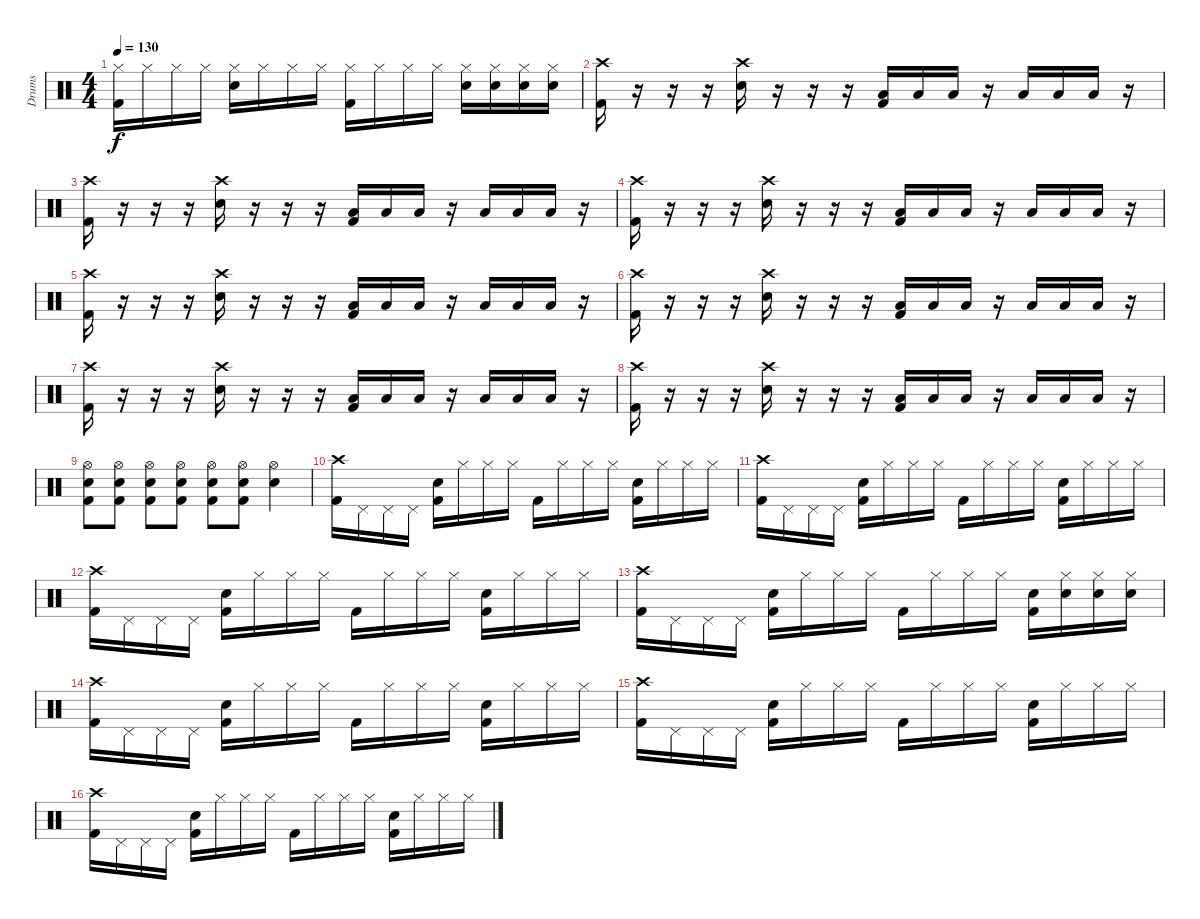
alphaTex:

\track ("Drums" "Drums") {instrument percussion}
\staff {score}
\articulation defaults
\ts (4 4)
\tempo 130
\clef neutral
\ks c
("Hi-Hat (closed)" "Kick (hit) 2").16{dy f} "Hi-Hat (closed)".16 "Hi-Hat (closed)".16 "Hi-Hat (closed)".16 ("Hi-Hat (closed)" "Electric Snare (hit)").16 "Hi-Hat (closed)".16 "Hi-Hat (closed)".16 "Hi-Hat (closed)".16 ("Hi-Hat (closed)" "Kick (hit) 2").16 "Hi-Hat (closed)".16 "Hi-Hat (closed)".16 "Hi-Hat (closed)".16 ("Hi-Hat (closed)" "Electric Snare (hit)").16 ("Hi-Hat (closed)" "Electric Snare (hit)").16 ("Hi-Hat (closed)" "Electric Snare (hit)").16 ("Hi-Hat (closed)" "Electric Snare (hit)").16 |
("Crash high (hit)" "Kick (hit) 2").16 r.16 r.16 r.16 ("Crash high (hit)" "Electric Snare (hit)").16 r.16 r.16 r.16 ("Low Tom (hit)" "Kick (hit) 2").16 "Low Tom (hit)".16 "Low Tom (hit)".16 r.16 "Low Tom (hit)".16 "Low Tom (hit)".16 "Low Tom (hit)".16 r.16 |
("Crash high (hit)" "Kick (hit) 2").16 r.16 r.16 r.16 ("Crash high (hit)" "Electric Snare (hit)").16 r.16 r.16 r.16 ("Low Tom (hit)" "Kick (hit) 2").16 "Low Tom (hit)".16 "Low Tom (hit)".16 r.16 "Low Tom (hit)".16 "Low Tom (hit)".16 "Low Tom (hit)".16 r.16 |
("Crash high (hit)" "Kick (hit) 2").16 r.16 r.16 r.16 ("Crash high (hit)" "Electric Snare (hit)").16 r.16 r.16 r.16 ("Low Tom (hit)" "Kick (hit) 2").16 "Low Tom (hit)".16 "Low Tom (hit)".16 r.16 "Low Tom (hit)".16 "Low Tom (hit)".16 "Low Tom (hit)".16 r.16 |
("Crash high (hit)" "Kick (hit) 2").16 r.16 r.16 r.16 ("Crash high (hit)" "Electric Snare (hit)").16 r.16 r.16 r.16 ("Low Tom (hit)" "Kick (hit) 2").16 "Low Tom (hit)".16 "Low Tom (hit)".16 r.16 "Low Tom (hit)".16 "Low Tom (hit)".16 "Low Tom (hit)".16 r.16 |
("Crash high (hit)" "Kick (hit) 2").16 r.16 r.16 r.16 ("Crash high (hit)" "Electric Snare (hit)").16 r.16 r.16 r.16 ("Low Tom (hit)" "Kick (hit) 2").16 "Low Tom (hit)".16 "Low Tom (hit)".16 r.16 "Low Tom (hit)".16 "Low Tom (hit)".16 "Low Tom (hit)".16 r.16 |
("Crash high (hit)" "Kick (hit) 2").16 r.16 r.16 r.16 ("Crash high (hit)" "Electric Snare (hit)").16 r.16 r.16 r.16 ("Low Tom (hit)" "Kick (hit) 2").16 "Low Tom (hit)".16 "Low Tom (hit)".16 r.16 "Low Tom (hit)".16 "Low Tom (hit)".16 "Low Tom (hit)".16 r.16 |
("Crash high (hit)" "Kick (hit) 2").16 r.16 r.16 r.16 ("Crash high (hit)" "Electric Snare (hit)").16 r.16 r.16 r.16 ("Low Tom (hit)" "Kick (hit) 2").16 "Low Tom (hit)".16 "Low Tom (hit)".16 r.16 "Low Tom (hit)".16 "Low Tom (hit)".16 "Low Tom (hit)".16 r.16 |
("Hi-Hat (open)" "Electric Snare (hit)" "Kick (hit) 2").8 ("Hi-Hat (open)" "Electric Snare (hit)" "Kick (hit) 2").8 ("Hi-Hat (open)" "Electric Snare (hit)" "Kick (hit) 2").8 ("Hi-Hat (open)" "Electric Snare (hit)" "Kick (hit) 2").8 ("Hi-Hat (open)" "Electric Snare (hit)" "Kick (hit) 2").8 ("Hi-Hat (open)" "Electric Snare (hit)" "Kick (hit) 2").8 ("Hi-Hat (open)" "Electric Snare (hit)").4 |
("Crash high (hit)" "Kick (hit) 2").16 "Pedal Hi-Hat (hit)".16 "Pedal Hi-Hat (hit)".16 "Pedal Hi-Hat (hit)".16 ("Electric Snare (hit)" "Kick (hit) 2").16 "Hi-Hat (closed)".16 "Hi-Hat (closed)".16 "Hi-Hat (closed)".16 "Kick (hit) 2".16 "Hi-Hat (closed)".16 "Hi-Hat (closed)".16 "Hi-Hat (closed)".16 ("Electric Snare (hit)" "Kick (hit) 2").16 "Hi-Hat (closed)".16 "Hi-Hat (closed)".16 "Hi-Hat (closed)".16 |
("Crash high (hit)" "Kick (hit) 2").16 "Pedal Hi-Hat (hit)".16 "Pedal Hi-Hat (hit)".16 "Pedal Hi-Hat (hit)".16 ("Electric Snare (hit)" "Kick (hit) 2").16 "Hi-Hat (closed)".16 "Hi-Hat (closed)".16 "Hi-Hat (closed)".16 "Kick (hit) 2".16 "Hi-Hat (closed)".16 "Hi-Hat (closed)".16 "Hi-Hat (closed)".16 ("Electric Snare (hit)" "Kick (hit) 2").16 "Hi-Hat (closed)".16 "Hi-Hat (closed)".16 "Hi-Hat (closed)".16 |
("Crash high (hit)" "Kick (hit) 2").16 "Pedal Hi-Hat (hit)".16 "Pedal Hi-Hat (hit)".16 "Pedal Hi-Hat (hit)".16 ("Electric Snare (hit)" "Kick (hit) 2").16 "Hi-Hat (closed)".16 "Hi-Hat (closed)".16 "Hi-Hat (closed)".16 "Kick (hit) 2".16 "Hi-Hat (closed)".16 "Hi-Hat (closed)".16 "Hi-Hat (closed)".16 ("Electric Snare (hit)" "Kick (hit) 2").16 "Hi-Hat (closed)".16 "Hi-Hat (closed)".16 "Hi-Hat (closed)".16 |
("Crash high (hit)" "Kick (hit) 2").16 "Pedal Hi-Hat (hit)".16 "Pedal Hi-Hat (hit)".16 "Pedal Hi-Hat (hit)".16 ("Electric Snare (hit)" "Kick (hit) 2").16 "Hi-Hat (closed)".16 "Hi-Hat (closed)".16 "Hi-Hat (closed)".16 "Kick (hit) 2".16 "Hi-Hat (closed)".16 "Hi-Hat (closed)".16 "Hi-Hat (closed)".16 ("Electric Snare (hit)" "Kick (hit) 2").16 ("Hi-Hat (closed)" "Electric Snare (hit)").16 ("Hi-Hat (closed)" "Electric Snare (hit)").16 ("Hi-Hat (closed)" "Electric Snare (hit)").16 |
("Crash high (hit)" "Kick (hit) 2").16 "Pedal Hi-Hat (hit)".16 "Pedal Hi-Hat (hit)".16 "Pedal Hi-Hat (hit)".16 ("Electric Snare (hit)" "Kick (hit) 2").16 "Hi-Hat (closed)".16 "Hi-Hat (closed)".16 "Hi-Hat (closed)".16 "Kick (hit) 2".16 "Hi-Hat (closed)".16 "Hi-Hat (closed)".16 "Hi-Hat (closed)".16 ("Electric Snare (hit)" "Kick (hit) 2").16 "Hi-Hat (closed)".16 "Hi-Hat (closed)".16 "Hi-Hat (closed)".16 |
("Crash high (hit)" "Kick (hit) 2").16 "Pedal Hi-Hat (hit)".16 "Pedal Hi-Hat (hit)".16 "Pedal Hi-Hat (hit)".16 ("Electric Snare (hit)" "Kick (hit) 2").16 "Hi-Hat (closed)".16 "Hi-Hat (closed)".16 "Hi-Hat (closed)".16 "Kick (hit) 2".16 "Hi-Hat (closed)".16 "Hi-Hat (closed)".16 "Hi-Hat (closed)".16 ("Electric Snare (hit)" "Kick (hit) 2").16 "Hi-Hat (closed)".16 "Hi-Hat (closed)".16 "Hi-Hat (closed)".16 |
("Crash high (hit)" "Kick (hit) 2").16 "Pedal Hi-Hat (hit)".16 "Pedal Hi-Hat (hit)".16 "Pedal Hi-Hat (hit)".16 ("Electric Snare (hit)" "Kick (hit) 2").16 "Hi-Hat (closed)".16 "Hi-Hat (closed)".16 "Hi-Hat (closed)".16 "Kick (hit) 2".16 "Hi-Hat (closed)".16 "Hi-Hat (closed)".16 "Hi-Hat (closed)".16 ("Electric Snare (hit)" "Kick (hit) 2").16 "Hi-Hat (closed)".16 "Hi-Hat (closed)".16 "Hi-Hat (closed)".16
